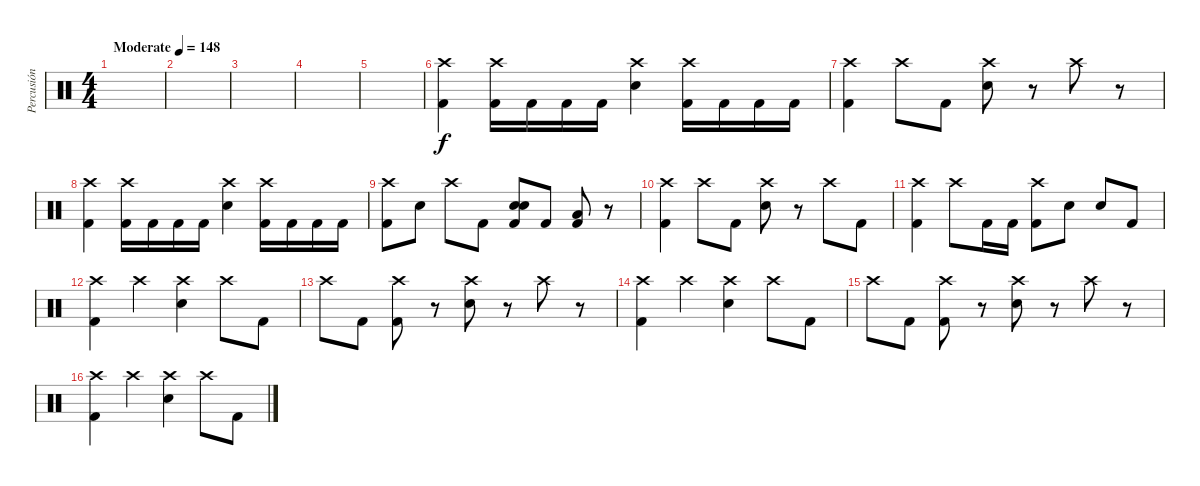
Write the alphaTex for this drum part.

\track ("Percusión" "Percusión") {instrument percussion}
\staff {score}
\articulation defaults
\ts (4 4)
\tempo (148 "Moderate")
\clef neutral
\ks c
|
|
|
|
|
("Crash high (hit)" "Kick (hit) 2").4 ("Crash high (hit)" "Kick (hit) 2").16 "Kick (hit) 2".16 "Kick (hit) 2".16 "Kick (hit) 2".16 ("Crash high (hit)" "Electric Snare (hit)").4 ("Crash high (hit)" "Kick (hit) 2").16 "Kick (hit) 2".16 "Kick (hit) 2".16 "Kick (hit) 2".16 |
("Crash high (hit)" "Kick (hit) 2").4 "Crash high (hit)".8 "Kick (hit) 2".8 ("Crash high (hit)" "Electric Snare (hit)").8 r.8 "Crash high (hit)".8 r.8 |
("Crash high (hit)" "Kick (hit) 2").4 ("Crash high (hit)" "Kick (hit) 2").16 "Kick (hit) 2".16 "Kick (hit) 2".16 "Kick (hit) 2".16 ("Crash high (hit)" "Electric Snare (hit)").4 ("Crash high (hit)" "Kick (hit) 2").16 "Kick (hit) 2".16 "Kick (hit) 2".16 "Kick (hit) 2".16 |
("Crash high (hit)" "Kick (hit) 2").8 "Electric Snare (hit)".8 "Crash high (hit)".8 "Kick (hit) 2".8 ("Electric Snare (hit)" "Electric Snare (hit)" "Kick (hit) 2").8{bu 60} "Kick (hit) 2".8 ("Low Tom (hit)" "Kick (hit) 2").8 r.8 |
("Crash high (hit)" "Kick (hit) 2").4 "Crash high (hit)".8 "Kick (hit) 2".8 ("Crash high (hit)" "Electric Snare (hit)").8 r.8 "Crash high (hit)".8 "Kick (hit) 2".8 |
("Crash high (hit)" "Kick (hit) 2").4 "Crash high (hit)".8 "Kick (hit) 2".16 "Kick (hit) 2".16 ("Crash high (hit)" "Kick (hit) 2").8 "Electric Snare (hit)".8 "Electric Snare (hit)".8 "Kick (hit) 2".8 |
("Crash high (hit)" "Kick (hit) 2").4 "Crash high (hit)".4 ("Crash high (hit)" "Electric Snare (hit)").4 "Crash high (hit)".8 "Kick (hit) 2".8 |
"Crash high (hit)".8 "Kick (hit) 2".8 ("Crash high (hit)" "Kick (hit) 2").8 r.8 ("Crash high (hit)" "Electric Snare (hit)").8 r.8 "Crash high (hit)".8 r.8 |
("Crash high (hit)" "Kick (hit) 2").4 "Crash high (hit)".4 ("Crash high (hit)" "Electric Snare (hit)").4 "Crash high (hit)".8 "Kick (hit) 2".8 |
"Crash high (hit)".8 "Kick (hit) 2".8 ("Crash high (hit)" "Kick (hit) 2").8 r.8 ("Crash high (hit)" "Electric Snare (hit)").8 r.8 "Crash high (hit)".8 r.8 |
("Crash high (hit)" "Kick (hit) 2").4 "Crash high (hit)".4 ("Crash high (hit)" "Electric Snare (hit)").4 "Crash high (hit)".8 "Kick (hit) 2".8
